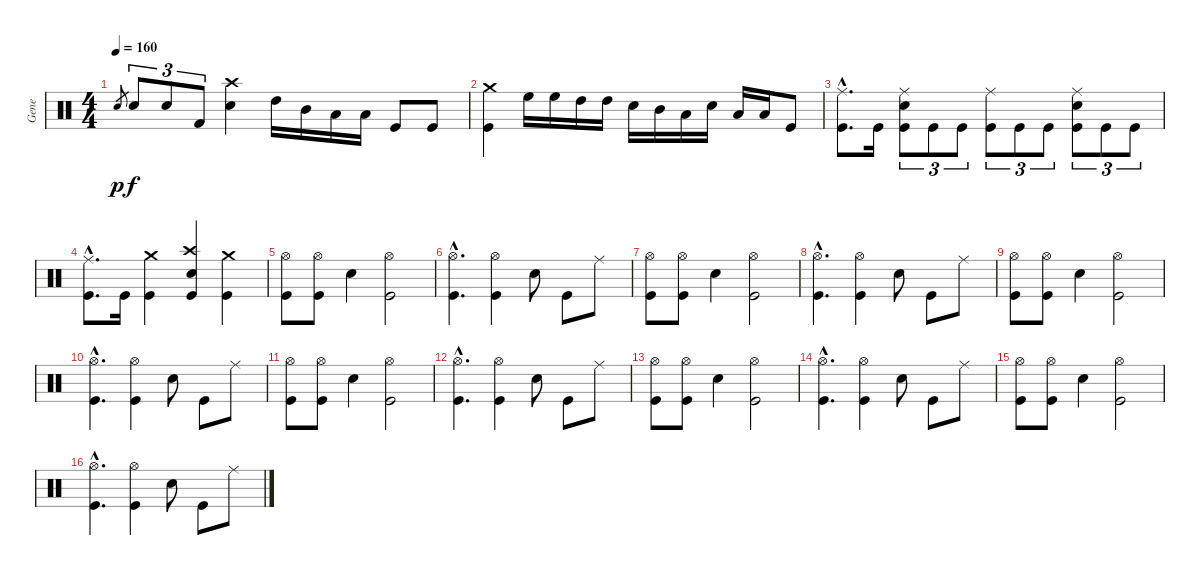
\track ("Gene" "Gene") {instrument percussion}
\staff {score}
\articulation defaults
\ts (4 4)
\tempo 160
\clef neutral
\ks c "Snare (hit) 2".8{gr dy p} "Snare (hit) 2".8{tu (3 2) dy f} "Snare (hit) 2".8{tu (3 2)} "Kick (hit) 2".8{tu (3 2)}
("Crash high (hit)" "Snare (hit) 2").4 "High Tom (hit)".16 "Mid Tom (hit)".16 "Low Tom (hit)".16 "Low Floor Tom (hit)".16 "Kick (hit)".8 "Kick (hit)".8 |
("Crash medium (hit)" "Kick (hit)").4 "High Floor Tom (hit)".16 "High Floor Tom (hit)".16 "High Tom (hit)".16 "High Tom (hit)".16 "Snare (hit) 2".16 "Mid Tom (hit)".16 "Low Tom (hit)".16 "Snare (hit) 2".16 "Low Floor Tom (hit)".16 "Low Floor Tom (hit)".16 "Kick (hit)".8 |
("Kick (hit)"{hac} "Ride (middle)"{hac}).8{d} "Kick (hit)".16 ("Kick (hit)" "Snare (hit) 2" "Ride (middle)").8{tu (3 2)} "Kick (hit)".8{tu (3 2)} "Kick (hit)".8{tu (3 2)} ("Kick (hit)" "Ride (middle)").8{tu (3 2)} "Kick (hit)".8{tu (3 2)} "Kick (hit)".8{tu (3 2)} ("Kick (hit)" "Snare (hit) 2" "Ride (middle)").8{tu (3 2)} "Kick (hit)".8{tu (3 2)} "Kick (hit)".8{tu (3 2)} |
("Kick (hit)"{hac} "Ride (middle)"{hac}).8{d} "Kick (hit)".16 ("Kick (hit)" "Crash medium (hit)").4 ("Kick (hit)" "Snare (hit) 2" "Crash high (hit)").4 ("Kick (hit)" "Crash medium (hit)").4 |
("Kick (hit)" "Hi-Hat (open)").8 ("Kick (hit)" "Hi-Hat (open)").8 "Snare (hit) 2".4 ("Kick (hit)" "Hi-Hat (open)").2 |
("Kick (hit)"{hac} "Hi-Hat (open)"{hac}).4{d} ("Kick (hit)" "Hi-Hat (open)").4 "Snare (hit) 2".8 "Kick (hit)".8 "Ride (middle)".8 |
("Kick (hit)" "Hi-Hat (open)").8 ("Kick (hit)" "Hi-Hat (open)").8 "Snare (hit) 2".4 ("Kick (hit)" "Hi-Hat (open)").2 |
("Kick (hit)"{hac} "Hi-Hat (open)"{hac}).4{d} ("Kick (hit)" "Hi-Hat (open)").4 "Snare (hit) 2".8 "Kick (hit)".8 "Ride (middle)".8 |
("Kick (hit)" "Hi-Hat (open)").8 ("Kick (hit)" "Hi-Hat (open)").8 "Snare (hit) 2".4 ("Kick (hit)" "Hi-Hat (open)").2 |
("Kick (hit)"{hac} "Hi-Hat (open)"{hac}).4{d} ("Kick (hit)" "Hi-Hat (open)").4 "Snare (hit) 2".8 "Kick (hit)".8 "Ride (middle)".8 |
("Kick (hit)" "Hi-Hat (open)").8 ("Kick (hit)" "Hi-Hat (open)").8 "Snare (hit) 2".4 ("Kick (hit)" "Hi-Hat (open)").2 |
("Kick (hit)"{hac} "Hi-Hat (open)"{hac}).4{d} ("Kick (hit)" "Hi-Hat (open)").4 "Snare (hit) 2".8 "Kick (hit)".8 "Ride (middle)".8 |
("Kick (hit)" "Hi-Hat (open)").8 ("Kick (hit)" "Hi-Hat (open)").8 "Snare (hit) 2".4 ("Kick (hit)" "Hi-Hat (open)").2 |
("Kick (hit)"{hac} "Hi-Hat (open)"{hac}).4{d} ("Kick (hit)" "Hi-Hat (open)").4 "Snare (hit) 2".8 "Kick (hit)".8 "Ride (middle)".8 |
("Kick (hit)" "Hi-Hat (open)").8 ("Kick (hit)" "Hi-Hat (open)").8 "Snare (hit) 2".4 ("Kick (hit)" "Hi-Hat (open)").2 |
("Kick (hit)"{hac} "Hi-Hat (open)"{hac}).4{d} ("Kick (hit)" "Hi-Hat (open)").4 "Snare (hit) 2".8 "Kick (hit)".8 "Ride (middle)".8
